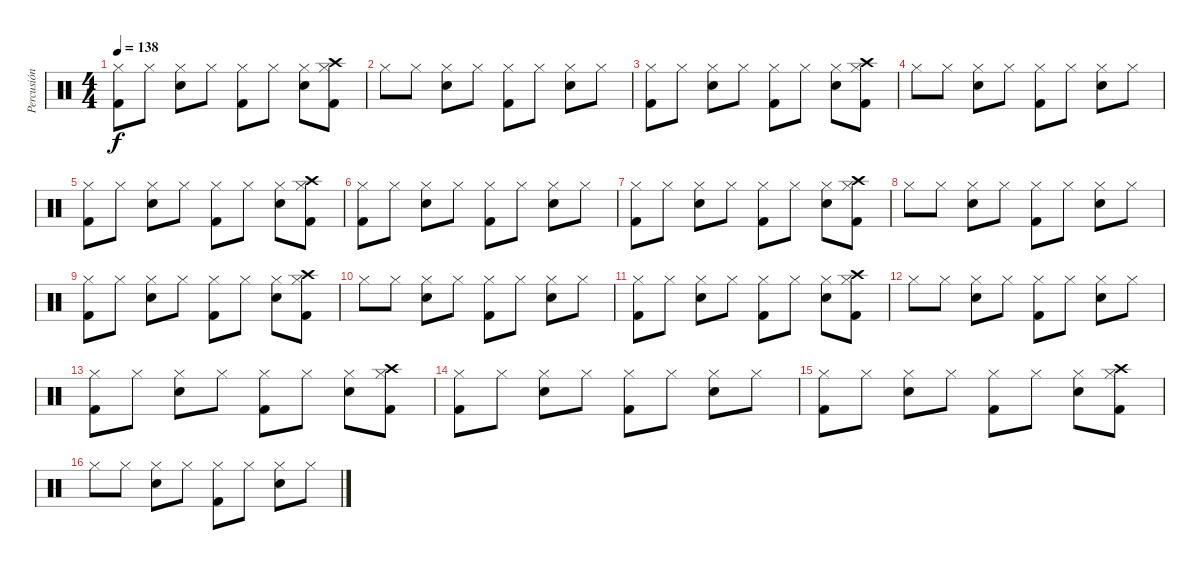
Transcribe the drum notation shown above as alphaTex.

\track ("Percusión" "Percusión") {instrument percussion bank 10}
\staff {score}
\articulation defaults
\ts (4 4)
\tempo 138
\clef neutral
\ks c
("Hi-Hat (closed)" "Kick (hit) 2").8{dy f} "Hi-Hat (closed)".8 ("Hi-Hat (closed)" "Snare (hit) 2").8 "Hi-Hat (closed)".8 ("Hi-Hat (closed)" "Kick (hit) 2").8 "Hi-Hat (closed)".8 ("Hi-Hat (closed)" "Snare (hit) 2").8 ("Hi-Hat (closed)" "Crash high (hit)" "Kick (hit) 2").8 |
"Hi-Hat (closed)".8 "Hi-Hat (closed)".8 ("Hi-Hat (closed)" "Snare (hit) 2").8 "Hi-Hat (closed)".8 ("Hi-Hat (closed)" "Kick (hit) 2").8 "Hi-Hat (closed)".8 ("Hi-Hat (closed)" "Snare (hit) 2").8 "Hi-Hat (closed)".8 |
("Hi-Hat (closed)" "Kick (hit) 2").8 "Hi-Hat (closed)".8 ("Hi-Hat (closed)" "Snare (hit) 2").8 "Hi-Hat (closed)".8 ("Hi-Hat (closed)" "Kick (hit) 2").8 "Hi-Hat (closed)".8 ("Hi-Hat (closed)" "Snare (hit) 2").8 ("Hi-Hat (closed)" "Crash high (hit)" "Kick (hit) 2").8 |
"Hi-Hat (closed)".8 "Hi-Hat (closed)".8 ("Hi-Hat (closed)" "Snare (hit) 2").8 "Hi-Hat (closed)".8 ("Hi-Hat (closed)" "Kick (hit) 2").8 "Hi-Hat (closed)".8 ("Hi-Hat (closed)" "Snare (hit) 2").8 "Hi-Hat (closed)".8 |
("Hi-Hat (closed)" "Kick (hit) 2").8 "Hi-Hat (closed)".8 ("Hi-Hat (closed)" "Snare (hit) 2").8 "Hi-Hat (closed)".8 ("Hi-Hat (closed)" "Kick (hit) 2").8 "Hi-Hat (closed)".8 ("Hi-Hat (closed)" "Snare (hit) 2").8 ("Hi-Hat (closed)" "Crash high (hit)" "Kick (hit) 2").8 |
("Hi-Hat (closed)" "Kick (hit) 2").8 "Hi-Hat (closed)".8 ("Hi-Hat (closed)" "Snare (hit) 2").8 "Hi-Hat (closed)".8 ("Hi-Hat (closed)" "Kick (hit) 2").8 "Hi-Hat (closed)".8 ("Hi-Hat (closed)" "Snare (hit) 2").8 "Hi-Hat (closed)".8 |
("Hi-Hat (closed)" "Kick (hit) 2").8 "Hi-Hat (closed)".8 ("Hi-Hat (closed)" "Snare (hit) 2").8 "Hi-Hat (closed)".8 ("Hi-Hat (closed)" "Kick (hit) 2").8 "Hi-Hat (closed)".8 ("Hi-Hat (closed)" "Snare (hit) 2").8 ("Hi-Hat (closed)" "Crash high (hit)" "Kick (hit) 2").8 |
"Hi-Hat (closed)".8 "Hi-Hat (closed)".8 ("Hi-Hat (closed)" "Snare (hit) 2").8 "Hi-Hat (closed)".8 ("Hi-Hat (closed)" "Kick (hit) 2").8 "Hi-Hat (closed)".8 ("Hi-Hat (closed)" "Snare (hit) 2").8 "Hi-Hat (closed)".8 |
("Hi-Hat (closed)" "Kick (hit) 2").8 "Hi-Hat (closed)".8 ("Hi-Hat (closed)" "Snare (hit) 2").8 "Hi-Hat (closed)".8 ("Hi-Hat (closed)" "Kick (hit) 2").8 "Hi-Hat (closed)".8 ("Hi-Hat (closed)" "Snare (hit) 2").8 ("Hi-Hat (closed)" "Crash high (hit)" "Kick (hit) 2").8 |
"Hi-Hat (closed)".8 "Hi-Hat (closed)".8 ("Hi-Hat (closed)" "Snare (hit) 2").8 "Hi-Hat (closed)".8 ("Hi-Hat (closed)" "Kick (hit) 2").8 "Hi-Hat (closed)".8 ("Hi-Hat (closed)" "Snare (hit) 2").8 "Hi-Hat (closed)".8 |
("Hi-Hat (closed)" "Kick (hit) 2").8 "Hi-Hat (closed)".8 ("Hi-Hat (closed)" "Snare (hit) 2").8 "Hi-Hat (closed)".8 ("Hi-Hat (closed)" "Kick (hit) 2").8 "Hi-Hat (closed)".8 ("Hi-Hat (closed)" "Snare (hit) 2").8 ("Hi-Hat (closed)" "Crash high (hit)" "Kick (hit) 2").8 |
"Hi-Hat (closed)".8 "Hi-Hat (closed)".8 ("Hi-Hat (closed)" "Snare (hit) 2").8 "Hi-Hat (closed)".8 ("Hi-Hat (closed)" "Kick (hit) 2").8 "Hi-Hat (closed)".8 ("Hi-Hat (closed)" "Snare (hit) 2").8 "Hi-Hat (closed)".8 |
("Hi-Hat (closed)" "Kick (hit) 2").8 "Hi-Hat (closed)".8 ("Hi-Hat (closed)" "Snare (hit) 2").8 "Hi-Hat (closed)".8 ("Hi-Hat (closed)" "Kick (hit) 2").8 "Hi-Hat (closed)".8 ("Hi-Hat (closed)" "Snare (hit) 2").8 ("Hi-Hat (closed)" "Crash high (hit)" "Kick (hit) 2").8 |
("Hi-Hat (closed)" "Kick (hit) 2").8 "Hi-Hat (closed)".8 ("Hi-Hat (closed)" "Snare (hit) 2").8 "Hi-Hat (closed)".8 ("Hi-Hat (closed)" "Kick (hit) 2").8 "Hi-Hat (closed)".8 ("Hi-Hat (closed)" "Snare (hit) 2").8 "Hi-Hat (closed)".8 |
("Hi-Hat (closed)" "Kick (hit) 2").8 "Hi-Hat (closed)".8 ("Hi-Hat (closed)" "Snare (hit) 2").8 "Hi-Hat (closed)".8 ("Hi-Hat (closed)" "Kick (hit) 2").8 "Hi-Hat (closed)".8 ("Hi-Hat (closed)" "Snare (hit) 2").8 ("Hi-Hat (closed)" "Crash high (hit)" "Kick (hit) 2").8 |
"Hi-Hat (closed)".8 "Hi-Hat (closed)".8 ("Hi-Hat (closed)" "Snare (hit) 2").8 "Hi-Hat (closed)".8 ("Hi-Hat (closed)" "Kick (hit) 2").8 "Hi-Hat (closed)".8 ("Hi-Hat (closed)" "Snare (hit) 2").8 "Hi-Hat (closed)".8
